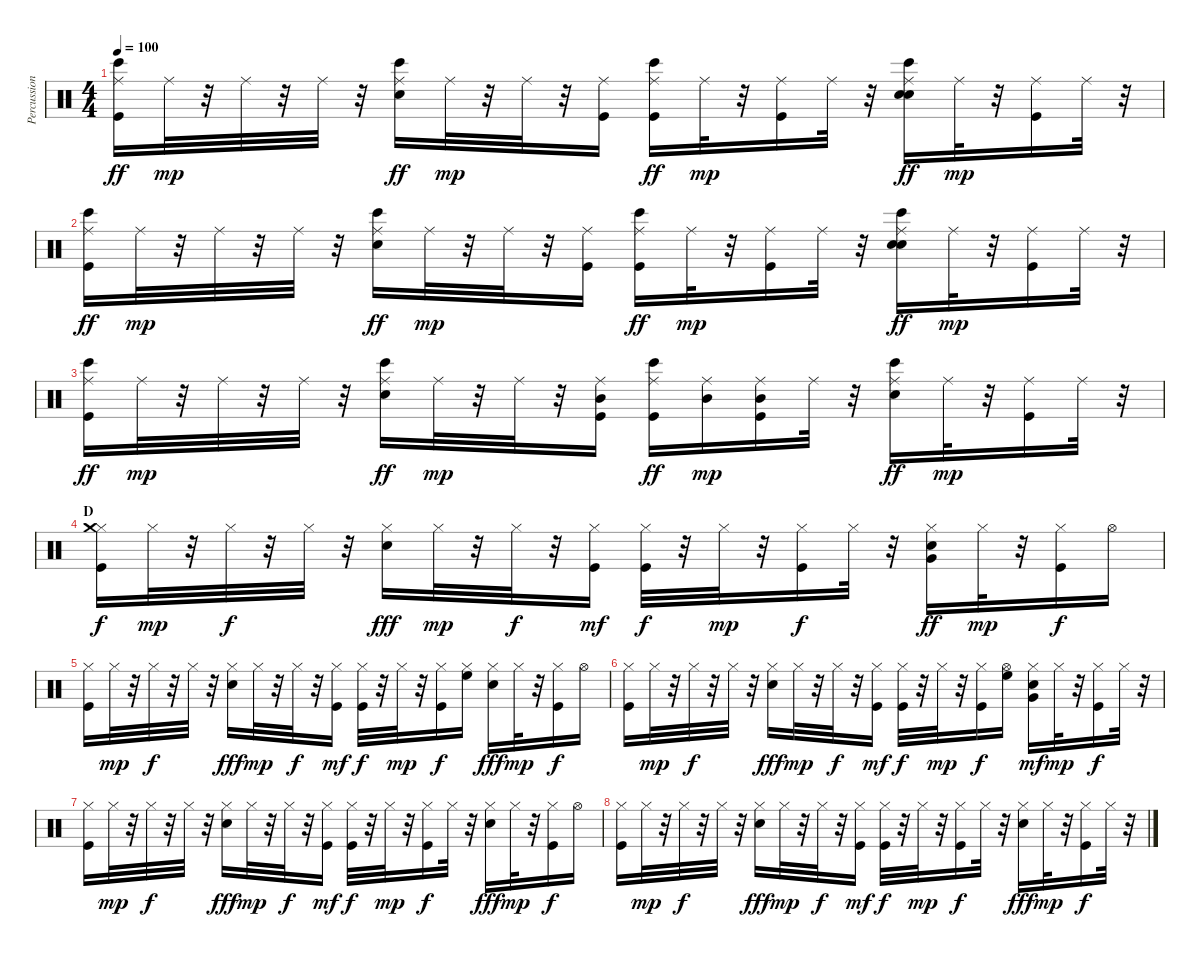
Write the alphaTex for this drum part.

\track ("Percussion" "Percussion") {instrument percussion}
\staff {score}
\articulation defaults
\ts (4 4)
\tempo 100
\clef neutral
\ks c
("Kick (hit)" "Ride (middle)" "Bongo High (hit)").16{dy ff} "Ride (middle)".32{dy mp} r.32 "Ride (middle)".32 r.32 "Ride (middle)".32 r.32 ("Electric Snare (hit)" "Ride (middle)" "Bongo High (hit)").16{dy ff} "Ride (middle)".32{dy mp} r.32 "Ride (middle)".32 r.32 ("Kick (hit)" "Ride (middle)").16 ("Kick (hit)" "Ride (middle)" "Bongo High (hit)").16{dy ff} "Ride (middle)".32{dy mp} r.32 ("Kick (hit)" "Ride (middle)").16 "Ride (middle)".32 r.32 ("Hand Clap (hit)" "Electric Snare (hit)" "Ride (middle)" "Bongo High (hit)").16{dy ff} "Ride (middle)".32{dy mp} r.32 ("Kick (hit)" "Ride (middle)").16 "Ride (middle)".32 r.32 |
("Kick (hit)" "Ride (middle)" "Bongo High (hit)").16{dy ff} "Ride (middle)".32{dy mp} r.32 "Ride (middle)".32 r.32 "Ride (middle)".32 r.32 ("Electric Snare (hit)" "Ride (middle)" "Bongo High (hit)").16{dy ff} "Ride (middle)".32{dy mp} r.32 "Ride (middle)".32 r.32 ("Kick (hit)" "Ride (middle)").16 ("Kick (hit)" "Ride (middle)" "Bongo High (hit)").16{dy ff} "Ride (middle)".32{dy mp} r.32 ("Kick (hit)" "Ride (middle)").16 "Ride (middle)".32 r.32 ("Hand Clap (hit)" "Electric Snare (hit)" "Ride (middle)" "Bongo High (hit)").16{dy ff} "Ride (middle)".32{dy mp} r.32 ("Kick (hit)" "Ride (middle)").16 "Ride (middle)".32 r.32 |
("Kick (hit)" "Ride (middle)" "Bongo High (hit)").16{dy ff} "Ride (middle)".32{dy mp} r.32 "Ride (middle)".32 r.32 "Ride (middle)".32 r.32 ("Electric Snare (hit)" "Ride (middle)" "Bongo High (hit)").16{dy ff} "Ride (middle)".32{dy mp} r.32 "Ride (middle)".32 r.32 ("Kick (hit)" "Mid Tom (hit)" "Ride (middle)").16 ("Kick (hit)" "Ride (middle)" "Bongo High (hit)").16{dy ff} ("Mid Tom (hit)" "Ride (middle)").16{dy mp} ("Kick (hit)" "Mid Tom (hit)" "Ride (middle)").16 "Ride (middle)".32 r.32 ("Electric Snare (hit)" "Ride (middle)" "Bongo High (hit)").16{dy ff} "Ride (middle)".32{dy mp} r.32 ("Kick (hit)" "Ride (middle)").16 "Ride (middle)".32 r.32 |
\section ("" "D")
("Kick (hit)" "Hi-Hat (closed)" "Crash medium (hit)").16{dy f} "Hi-Hat (closed)".32{dy mp} r.32 "Hi-Hat (closed)".32{dy f} r.32 "Hi-Hat (closed)".32 r.32 ("Electric Snare (hit)" "Hi-Hat (closed)").16{dy fff} "Hi-Hat (closed)".32{dy mp} r.32 "Hi-Hat (closed)".32{dy f} r.32 ("Kick (hit)" "Hi-Hat (closed)").16{dy mf} ("Kick (hit)" "Hi-Hat (closed)").32{dy f} r.32 "Hi-Hat (closed)".32{dy mp} r.32 ("Kick (hit)" "Hi-Hat (closed)").16{dy f} "Hi-Hat (closed)".32 r.32 ("Electric Snare (hit)" "Hi-Hat (closed)" "Very Low Tom (hit)").16{dy ff} "Hi-Hat (closed)".32{dy mp} r.32 ("Kick (hit)" "Hi-Hat (closed)").16{dy f} "Hi-Hat (open)".16 |
("Kick (hit)" "Hi-Hat (closed)").16 "Hi-Hat (closed)".32{dy mp} r.32 "Hi-Hat (closed)".32{dy f} r.32 "Hi-Hat (closed)".32 r.32 ("Electric Snare (hit)" "Hi-Hat (closed)").16{dy fff} "Hi-Hat (closed)".32{dy mp} r.32 "Hi-Hat (closed)".32{dy f} r.32 ("Kick (hit)" "Hi-Hat (closed)").16{dy mf} ("Kick (hit)" "Hi-Hat (closed)").32{dy f} r.32 "Hi-Hat (closed)".32{dy mp} r.32 ("Kick (hit)" "Hi-Hat (closed)").16{dy f} ("Hi-Hat (closed)" "High Floor Tom (hit)").16 ("Electric Snare (hit)" "Hi-Hat (closed)").16{dy fff} "Hi-Hat (closed)".32{dy mp} r.32 ("Kick (hit)" "Hi-Hat (closed)").16{dy f} "Hi-Hat (open)".16 |
("Kick (hit)" "Hi-Hat (closed)").16 "Hi-Hat (closed)".32{dy mp} r.32 "Hi-Hat (closed)".32{dy f} r.32 "Hi-Hat (closed)".32 r.32 ("Electric Snare (hit)" "Hi-Hat (closed)").16{dy fff} "Hi-Hat (closed)".32{dy mp} r.32 "Hi-Hat (closed)".32{dy f} r.32 ("Kick (hit)" "Hi-Hat (closed)").16{dy mf} ("Kick (hit)" "Hi-Hat (closed)").32{dy f} r.32 "Hi-Hat (closed)".32{dy mp} r.32 ("Kick (hit)" "Hi-Hat (closed)").16{dy f} ("Hi-Hat (open)" "High Floor Tom (hit)").16 ("Electric Snare (hit)" "Hi-Hat (closed)" "Very Low Tom (hit)").16{dy mf} "Hi-Hat (closed)".32{dy mp} r.32 ("Kick (hit)" "Hi-Hat (closed)").16{dy f} "Hi-Hat (closed)".32 r.32 |
("Kick (hit)" "Hi-Hat (closed)").16 "Hi-Hat (closed)".32{dy mp} r.32 "Hi-Hat (closed)".32{dy f} r.32 "Hi-Hat (closed)".32 r.32 ("Electric Snare (hit)" "Hi-Hat (closed)").16{dy fff} "Hi-Hat (closed)".32{dy mp} r.32 "Hi-Hat (closed)".32{dy f} r.32 ("Kick (hit)" "Hi-Hat (closed)").16{dy mf} ("Kick (hit)" "Hi-Hat (closed)").32{dy f} r.32 "Hi-Hat (closed)".32{dy mp} r.32 ("Kick (hit)" "Hi-Hat (closed)").16{dy f} "Hi-Hat (closed)".32 r.32 ("Electric Snare (hit)" "Hi-Hat (closed)").16{dy fff} "Hi-Hat (closed)".32{dy mp} r.32 ("Kick (hit)" "Hi-Hat (closed)").16{dy f} "Hi-Hat (open)".16 |
("Kick (hit)" "Hi-Hat (closed)").16 "Hi-Hat (closed)".32{dy mp} r.32 "Hi-Hat (closed)".32{dy f} r.32 "Hi-Hat (closed)".32 r.32 ("Electric Snare (hit)" "Hi-Hat (closed)").16{dy fff} "Hi-Hat (closed)".32{dy mp} r.32 "Hi-Hat (closed)".32{dy f} r.32 ("Kick (hit)" "Hi-Hat (closed)").16{dy mf} ("Kick (hit)" "Hi-Hat (closed)").32{dy f} r.32 "Hi-Hat (closed)".32{dy mp} r.32 ("Kick (hit)" "Hi-Hat (closed)").16{dy f} "Hi-Hat (closed)".32 r.32 ("Electric Snare (hit)" "Hi-Hat (closed)").16{dy fff} "Hi-Hat (closed)".32{dy mp} r.32 ("Kick (hit)" "Hi-Hat (closed)").16{dy f} "Hi-Hat (closed)".32 r.32
